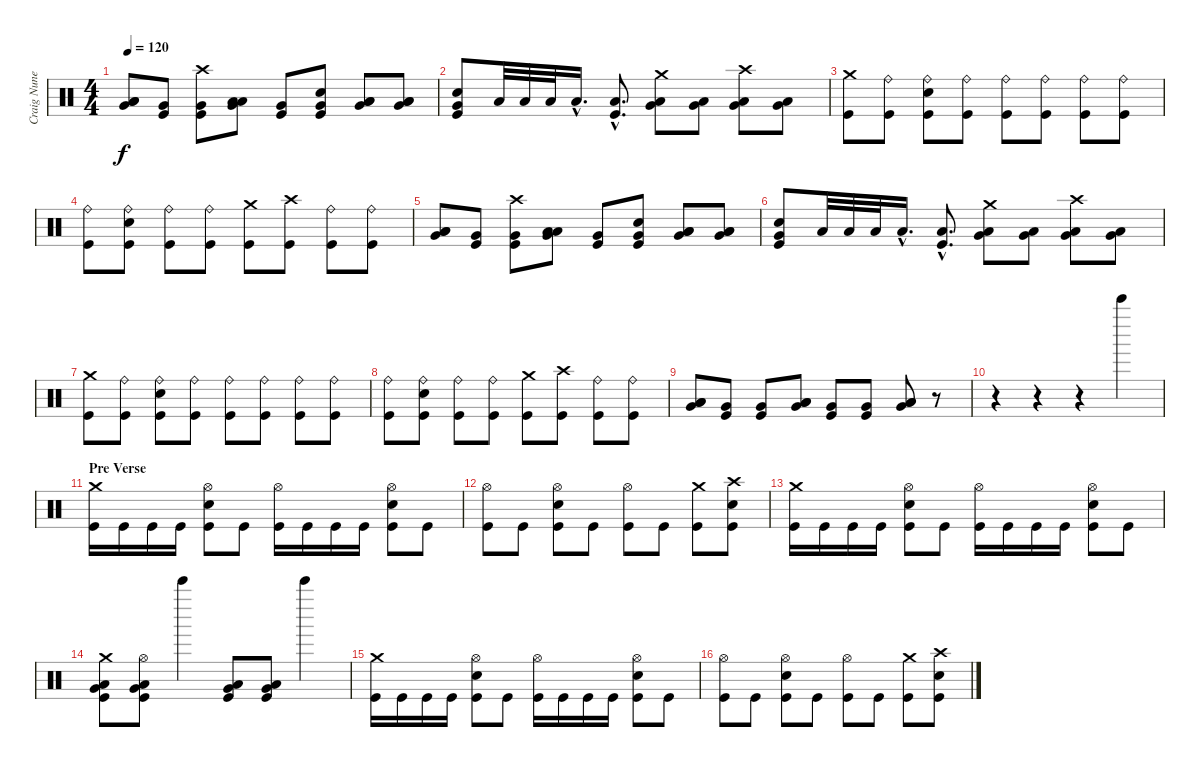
\track ("Craig Nunenmacher" "Craig Nune") {instrument percussion}
\staff {score}
\articulation defaults
\ts (4 4)
\tempo 120
\clef neutral
\ks c
("Low Tom (hit)" "Low Tom (hit)" "Very Low Tom (hit)").8{bd 120 dy f} ("Very Low Tom (hit)" "Kick (hit)").8 ("Crash high (hit)" "Very Low Tom (hit)" "Kick (hit)").8 ("Low Tom (hit)" "Low Tom (hit)" "Very Low Tom (hit)").8{bd 120} ("Very Low Tom (hit)" "Kick (hit)").8 ("Snare (hit) 2" "Very Low Tom (hit)" "Kick (hit)").8 ("Low Tom (hit)" "Low Tom (hit)" "Very Low Tom (hit)").8{bd 120} ("Low Tom (hit)" "Low Tom (hit)" "Very Low Tom (hit)").8{bd 120} |
("Snare (hit) 2" "Very Low Tom (hit)" "Kick (hit)").8 "Low Tom (hit)".32 "Low Tom (hit)".32 "Low Tom (hit)".32 "Low Tom (hit)"{hac}.16{d} ("Low Tom (hit)"{hac} "Kick (hit)"{hac}).8{d} ("Crash medium (hit)" "Low Tom (hit)" "Very Low Tom (hit)").8 ("Low Tom (hit)" "Very Low Tom (hit)").8 ("Crash high (hit)" "Low Tom (hit)" "Very Low Tom (hit)").8 ("Low Tom (hit)" "Very Low Tom (hit)").8 |
("Crash medium (hit)" "Kick (hit)").8 ("Ride (bell)" "Kick (hit)").8 ("Ride (bell)" "Snare (hit) 2" "Kick (hit)").8 ("Ride (bell)" "Kick (hit)").8 ("Ride (bell)" "Kick (hit)").8 ("Ride (bell)" "Kick (hit)").8 ("Ride (bell)" "Kick (hit)").8 ("Ride (bell)" "Kick (hit)").8 |
("Ride (bell)" "Kick (hit)").8 ("Ride (bell)" "Snare (hit) 2" "Kick (hit)").8 ("Ride (bell)" "Kick (hit)").8 ("Ride (bell)" "Kick (hit)").8 ("Crash medium (hit)" "Kick (hit)").8 ("Crash high (hit)" "Kick (hit)").8 ("Ride (bell)" "Kick (hit)").8 ("Ride (bell)" "Kick (hit)").8 |
("Low Tom (hit)" "Low Tom (hit)" "Very Low Tom (hit)").8{bd 120} ("Very Low Tom (hit)" "Kick (hit)").8 ("Crash high (hit)" "Very Low Tom (hit)" "Kick (hit)").8 ("Low Tom (hit)" "Low Tom (hit)" "Very Low Tom (hit)").8{bd 120} ("Very Low Tom (hit)" "Kick (hit)").8 ("Snare (hit) 2" "Very Low Tom (hit)" "Kick (hit)").8 ("Low Tom (hit)" "Low Tom (hit)" "Very Low Tom (hit)").8{bd 120} ("Low Tom (hit)" "Low Tom (hit)" "Very Low Tom (hit)").8{bd 120} |
("Snare (hit) 2" "Very Low Tom (hit)" "Kick (hit)").8 "Low Tom (hit)".32 "Low Tom (hit)".32 "Low Tom (hit)".32 "Low Tom (hit)"{hac}.16{d} ("Low Tom (hit)"{hac} "Kick (hit)"{hac}).8{d} ("Crash medium (hit)" "Low Tom (hit)" "Very Low Tom (hit)").8 ("Low Tom (hit)" "Very Low Tom (hit)").8 ("Crash high (hit)" "Low Tom (hit)" "Very Low Tom (hit)").8 ("Low Tom (hit)" "Very Low Tom (hit)").8 |
("Crash medium (hit)" "Kick (hit)").8 ("Ride (bell)" "Kick (hit)").8 ("Ride (bell)" "Snare (hit) 2" "Kick (hit)").8 ("Ride (bell)" "Kick (hit)").8 ("Ride (bell)" "Kick (hit)").8 ("Ride (bell)" "Kick (hit)").8 ("Ride (bell)" "Kick (hit)").8 ("Ride (bell)" "Kick (hit)").8 |
("Ride (bell)" "Kick (hit)").8 ("Ride (bell)" "Snare (hit) 2" "Kick (hit)").8 ("Ride (bell)" "Kick (hit)").8 ("Ride (bell)" "Kick (hit)").8 ("Crash medium (hit)" "Kick (hit)").8 ("Crash high (hit)" "Kick (hit)").8 ("Ride (bell)" "Kick (hit)").8 ("Ride (bell)" "Kick (hit)").8 |
("Low Tom (hit)" "Low Tom (hit)" "Very Low Tom (hit)").8{bd 120} ("Very Low Tom (hit)" "Kick (hit)").8 ("Very Low Tom (hit)" "Kick (hit)").8 ("Low Tom (hit)" "Low Tom (hit)" "Very Low Tom (hit)").8{bd 120} ("Very Low Tom (hit)" "Kick (hit)").8 ("Very Low Tom (hit)" "Kick (hit)").8 ("Low Tom (hit)" "Low Tom (hit)" "Very Low Tom (hit)").8{bd 120} r.8 |
r.4 r.4 r.4 "Bell Tree (hit)".4 |
\section ("" "Pre Verse")
("Crash medium (hit)" "Kick (hit)").16 "Kick (hit)".16 "Kick (hit)".16 "Kick (hit)".16 ("Hi-Hat (open)" "Snare (hit) 2" "Kick (hit)").8 "Kick (hit)".8 ("Hi-Hat (open)" "Kick (hit)").16 "Kick (hit)".16 "Kick (hit)".16 "Kick (hit)".16 ("Hi-Hat (open)" "Snare (hit) 2" "Kick (hit)").8 "Kick (hit)".8 |
("Hi-Hat (open)" "Kick (hit)").8 "Kick (hit)".8 ("Hi-Hat (open)" "Snare (hit) 2" "Kick (hit)").8 "Kick (hit)".8 ("Hi-Hat (open)" "Kick (hit)").8 "Kick (hit)".8 ("Crash medium (hit)" "Kick (hit)").8 ("Crash high (hit)" "Snare (hit) 2" "Kick (hit)").8 |
("Crash medium (hit)" "Kick (hit)").16 "Kick (hit)".16 "Kick (hit)".16 "Kick (hit)".16 ("Hi-Hat (open)" "Snare (hit) 2" "Kick (hit)").8 "Kick (hit)".8 ("Hi-Hat (open)" "Kick (hit)").16 "Kick (hit)".16 "Kick (hit)".16 "Kick (hit)".16 ("Hi-Hat (open)" "Snare (hit) 2" "Kick (hit)").8 "Kick (hit)".8 |
("Crash medium (hit)" "Low Tom (hit)" "Very Low Tom (hit)" "Kick (hit)").8 ("Hi-Hat (open)" "Low Tom (hit)" "Very Low Tom (hit)" "Kick (hit)").8 "Bell Tree (hit)".4 ("Low Tom (hit)" "Very Low Tom (hit)" "Kick (hit)").8 ("Low Tom (hit)" "Very Low Tom (hit)" "Kick (hit)").8 "Bell Tree (hit)".4 |
("Crash medium (hit)" "Kick (hit)").16 "Kick (hit)".16 "Kick (hit)".16 "Kick (hit)".16 ("Hi-Hat (open)" "Snare (hit) 2" "Kick (hit)").8 "Kick (hit)".8 ("Hi-Hat (open)" "Kick (hit)").16 "Kick (hit)".16 "Kick (hit)".16 "Kick (hit)".16 ("Hi-Hat (open)" "Snare (hit) 2" "Kick (hit)").8 "Kick (hit)".8 |
("Hi-Hat (open)" "Kick (hit)").8 "Kick (hit)".8 ("Hi-Hat (open)" "Snare (hit) 2" "Kick (hit)").8 "Kick (hit)".8 ("Hi-Hat (open)" "Kick (hit)").8 "Kick (hit)".8 ("Crash medium (hit)" "Kick (hit)").8 ("Crash high (hit)" "Snare (hit) 2" "Kick (hit)").8
